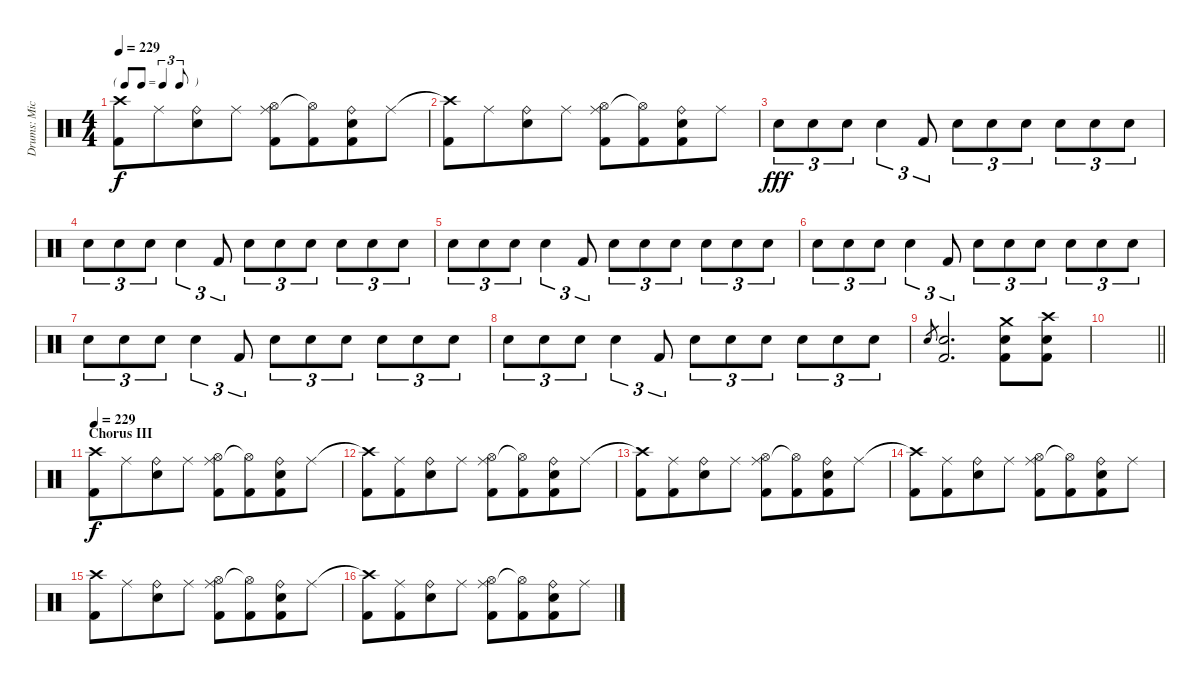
\track ("Drums: Mick" "Drums: Mic") {instrument percussion}
\staff {score}
\articulation defaults
\ts (4 4)
\tf triplet8th
\tempo 229
\clef neutral
\ks c
("Crash high (hit)"{t} "Kick (hit) 2").8{dy f} "Ride (middle)".8{beam merge} ("Ride (bell)" "Snare (hit) 2").8 "Ride (middle)".8 ("Ride (middle)" "Hi-Hat (open)" "Kick (hit) 2").8 ("Hi-Hat (open)"{t} "Kick (hit) 2").8{beam merge} ("Ride (bell)" "Snare (hit) 2" "Kick (hit) 2").8 "Ride (middle)".8 |
("Crash high (hit)"{t} "Kick (hit) 2").8 "Ride (middle)".8{beam merge} ("Ride (bell)" "Snare (hit) 2").8 "Ride (middle)".8 ("Ride (middle)" "Hi-Hat (open)" "Kick (hit) 2").8 ("Hi-Hat (open)"{t} "Kick (hit) 2").8{beam merge} ("Ride (bell)" "Snare (hit) 2" "Kick (hit) 2").8 "Ride (middle)".8 |
"Snare (hit) 2".8{tu (3 2) dy fff} "Snare (hit) 2".8{tu (3 2)} "Snare (hit) 2".8{tu (3 2)} "Snare (hit) 2".4{tu (3 2)} "Kick (hit) 2".8{tu (3 2)} "Snare (hit) 2".8{tu (3 2)} "Snare (hit) 2".8{tu (3 2)} "Snare (hit) 2".8{tu (3 2)} "Snare (hit) 2".8{tu (3 2)} "Snare (hit) 2".8{tu (3 2)} "Snare (hit) 2".8{tu (3 2)} |
"Snare (hit) 2".8{tu (3 2)} "Snare (hit) 2".8{tu (3 2)} "Snare (hit) 2".8{tu (3 2)} "Snare (hit) 2".4{tu (3 2)} "Kick (hit) 2".8{tu (3 2)} "Snare (hit) 2".8{tu (3 2)} "Snare (hit) 2".8{tu (3 2)} "Snare (hit) 2".8{tu (3 2)} "Snare (hit) 2".8{tu (3 2)} "Snare (hit) 2".8{tu (3 2)} "Snare (hit) 2".8{tu (3 2)} |
"Snare (hit) 2".8{tu (3 2)} "Snare (hit) 2".8{tu (3 2)} "Snare (hit) 2".8{tu (3 2)} "Snare (hit) 2".4{tu (3 2)} "Kick (hit) 2".8{tu (3 2)} "Snare (hit) 2".8{tu (3 2)} "Snare (hit) 2".8{tu (3 2)} "Snare (hit) 2".8{tu (3 2)} "Snare (hit) 2".8{tu (3 2)} "Snare (hit) 2".8{tu (3 2)} "Snare (hit) 2".8{tu (3 2)} |
"Snare (hit) 2".8{tu (3 2)} "Snare (hit) 2".8{tu (3 2)} "Snare (hit) 2".8{tu (3 2)} "Snare (hit) 2".4{tu (3 2)} "Kick (hit) 2".8{tu (3 2)} "Snare (hit) 2".8{tu (3 2)} "Snare (hit) 2".8{tu (3 2)} "Snare (hit) 2".8{tu (3 2)} "Snare (hit) 2".8{tu (3 2)} "Snare (hit) 2".8{tu (3 2)} "Snare (hit) 2".8{tu (3 2)} |
"Snare (hit) 2".8{tu (3 2)} "Snare (hit) 2".8{tu (3 2)} "Snare (hit) 2".8{tu (3 2)} "Snare (hit) 2".4{tu (3 2)} "Kick (hit) 2".8{tu (3 2)} "Snare (hit) 2".8{tu (3 2)} "Snare (hit) 2".8{tu (3 2)} "Snare (hit) 2".8{tu (3 2)} "Snare (hit) 2".8{tu (3 2)} "Snare (hit) 2".8{tu (3 2)} "Snare (hit) 2".8{tu (3 2)} |
"Snare (hit) 2".8{tu (3 2)} "Snare (hit) 2".8{tu (3 2)} "Snare (hit) 2".8{tu (3 2)} "Snare (hit) 2".4{tu (3 2)} "Kick (hit) 2".8{tu (3 2)} "Snare (hit) 2".8{tu (3 2)} "Snare (hit) 2".8{tu (3 2)} "Snare (hit) 2".8{tu (3 2)} "Snare (hit) 2".8{tu (3 2)} "Snare (hit) 2".8{tu (3 2)} "Snare (hit) 2".8{tu (3 2)} |
"Electric Snare (hit)".8{gr} ("Snare (hit) 2" "Kick (hit) 2").2{d} ("Crash medium (hit)" "Snare (hit) 2" "Kick (hit) 2").8 ("Crash high (hit)" "Snare (hit) 2" "Kick (hit) 2").8 |
\barLineRight lightlight
|
\section ("" "Chorus III")
\tempo 229
("Crash high (hit)" "Kick (hit) 2").8{dy f} "Ride (middle)".8{beam merge} ("Ride (bell)" "Snare (hit) 2").8 "Ride (middle)".8 ("Ride (middle)" "Hi-Hat (open)" "Kick (hit) 2").8 ("Hi-Hat (open)"{t} "Kick (hit) 2").8{beam merge} ("Ride (bell)" "Snare (hit) 2" "Kick (hit) 2").8 "Ride (middle)".8 |
("Crash high (hit)"{t} "Kick (hit) 2").8 ("Ride (middle)" "Kick (hit) 2").8{beam merge} ("Ride (bell)" "Snare (hit) 2").8 "Ride (middle)".8 ("Ride (middle)" "Hi-Hat (open)" "Kick (hit) 2").8 ("Hi-Hat (open)"{t} "Kick (hit) 2").8{beam merge} ("Ride (bell)" "Snare (hit) 2" "Kick (hit) 2").8 "Ride (middle)".8 |
("Crash high (hit)"{t} "Kick (hit) 2").8 ("Ride (middle)" "Kick (hit) 2").8{beam merge} ("Ride (bell)" "Snare (hit) 2").8 "Ride (middle)".8 ("Ride (middle)" "Hi-Hat (open)" "Kick (hit) 2").8 ("Hi-Hat (open)"{t} "Kick (hit) 2").8{beam merge} ("Ride (bell)" "Snare (hit) 2" "Kick (hit) 2").8 "Ride (middle)".8 |
("Crash high (hit)"{t} "Kick (hit) 2").8 ("Ride (middle)" "Kick (hit) 2").8{beam merge} ("Ride (bell)" "Snare (hit) 2").8 "Ride (middle)".8 ("Ride (middle)" "Hi-Hat (open)" "Kick (hit) 2").8 ("Hi-Hat (open)"{t} "Kick (hit) 2").8{beam merge} ("Ride (bell)" "Snare (hit) 2" "Kick (hit) 2").8 "Ride (middle)".8 |
("Crash high (hit)" "Kick (hit) 2").8 "Ride (middle)".8{beam merge} ("Ride (bell)" "Snare (hit) 2").8 "Ride (middle)".8 ("Ride (middle)" "Hi-Hat (open)" "Kick (hit) 2").8 ("Hi-Hat (open)"{t} "Kick (hit) 2").8{beam merge} ("Ride (bell)" "Snare (hit) 2" "Kick (hit) 2").8 "Ride (middle)".8 |
("Crash high (hit)"{t} "Kick (hit) 2").8 ("Ride (middle)" "Kick (hit) 2").8{beam merge} ("Ride (bell)" "Snare (hit) 2").8 "Ride (middle)".8 ("Ride (middle)" "Hi-Hat (open)" "Kick (hit) 2").8 ("Hi-Hat (open)"{t} "Kick (hit) 2").8{beam merge} ("Ride (bell)" "Snare (hit) 2" "Kick (hit) 2").8 "Ride (middle)".8
